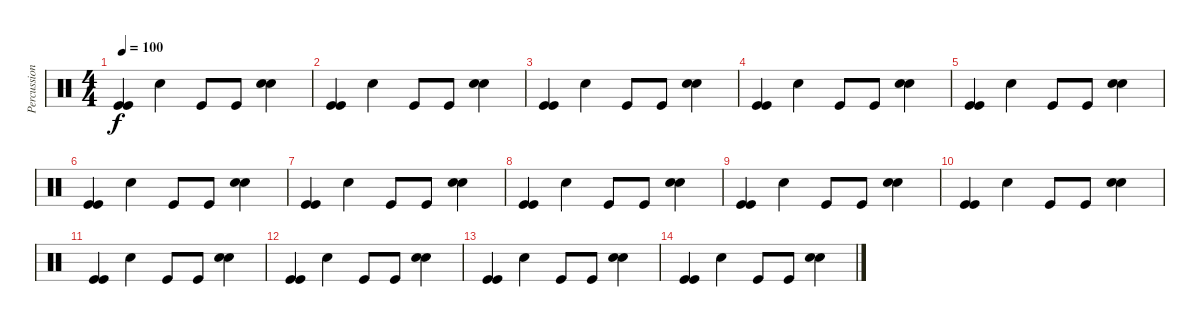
\track ("Percussion" "Percussion") {instrument percussion}
\staff {score}
\articulation defaults
\ts (4 4)
\tempo 100
\clef neutral
\ks c
("Kick (hit)" "Kick (hit)").4{dy f} "Snare (hit) 2".4 "Kick (hit)".8 "Kick (hit)".8 ("Snare (hit) 2" "Snare (hit) 2").4 |
("Kick (hit)" "Kick (hit)").4 "Snare (hit) 2".4 "Kick (hit)".8 "Kick (hit)".8 ("Snare (hit) 2" "Snare (hit) 2").4 |
("Kick (hit)" "Kick (hit)").4 "Snare (hit) 2".4 "Kick (hit)".8 "Kick (hit)".8 ("Snare (hit) 2" "Snare (hit) 2").4 |
("Kick (hit)" "Kick (hit)").4 "Snare (hit) 2".4 "Kick (hit)".8 "Kick (hit)".8 ("Snare (hit) 2" "Snare (hit) 2").4 |
("Kick (hit)" "Kick (hit)").4 "Snare (hit) 2".4 "Kick (hit)".8 "Kick (hit)".8 ("Snare (hit) 2" "Snare (hit) 2").4 |
("Kick (hit)" "Kick (hit)").4 "Snare (hit) 2".4 "Kick (hit)".8 "Kick (hit)".8 ("Snare (hit) 2" "Snare (hit) 2").4 |
("Kick (hit)" "Kick (hit)").4 "Snare (hit) 2".4 "Kick (hit)".8 "Kick (hit)".8 ("Snare (hit) 2" "Snare (hit) 2").4 |
("Kick (hit)" "Kick (hit)").4 "Snare (hit) 2".4 "Kick (hit)".8 "Kick (hit)".8 ("Snare (hit) 2" "Snare (hit) 2").4 |
("Kick (hit)" "Kick (hit)").4 "Snare (hit) 2".4 "Kick (hit)".8 "Kick (hit)".8 ("Snare (hit) 2" "Snare (hit) 2").4 |
("Kick (hit)" "Kick (hit)").4 "Snare (hit) 2".4 "Kick (hit)".8 "Kick (hit)".8 ("Snare (hit) 2" "Snare (hit) 2").4 |
("Kick (hit)" "Kick (hit)").4 "Snare (hit) 2".4 "Kick (hit)".8 "Kick (hit)".8 ("Snare (hit) 2" "Snare (hit) 2").4 |
("Kick (hit)" "Kick (hit)").4 "Snare (hit) 2".4 "Kick (hit)".8 "Kick (hit)".8 ("Snare (hit) 2" "Snare (hit) 2").4 |
("Kick (hit)" "Kick (hit)").4 "Snare (hit) 2".4 "Kick (hit)".8 "Kick (hit)".8 ("Snare (hit) 2" "Snare (hit) 2").4 |
("Kick (hit)" "Kick (hit)").4 "Snare (hit) 2".4 "Kick (hit)".8 "Kick (hit)".8 ("Snare (hit) 2" "Snare (hit) 2").4
